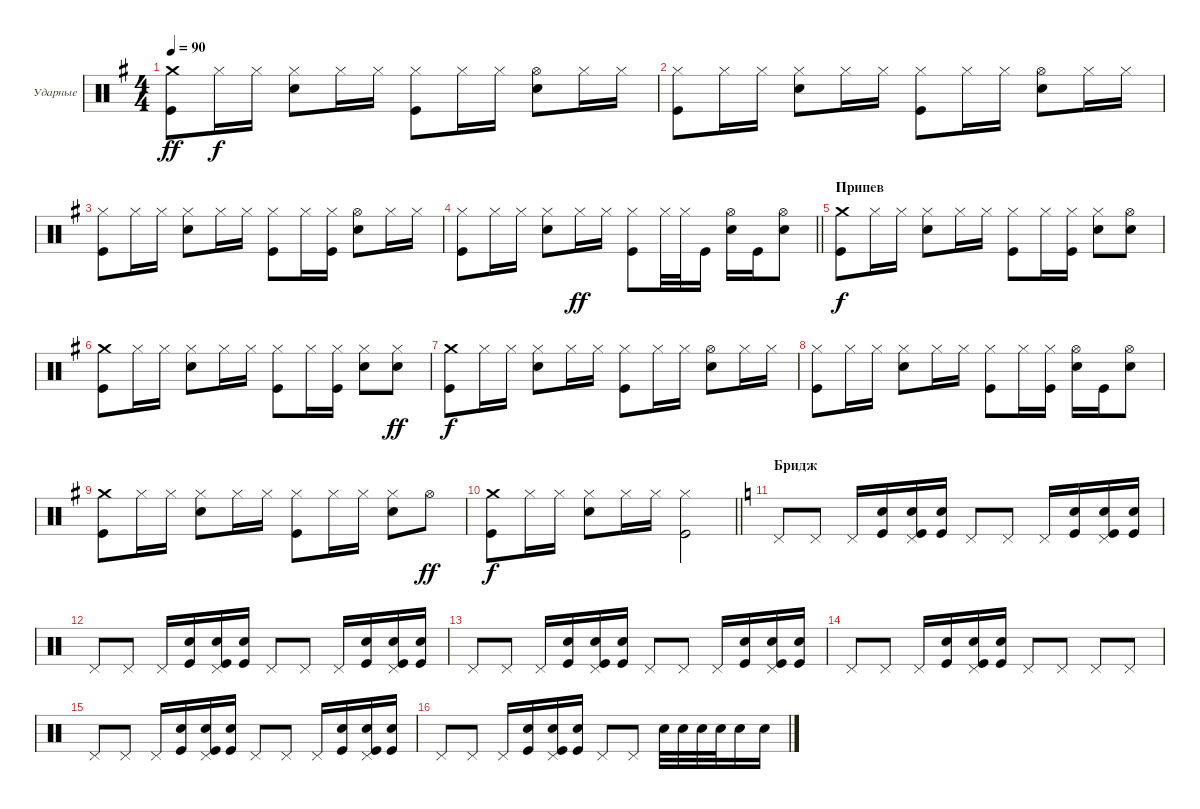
\bracketExtendMode groupsimilarinstruments
\firstSystemTrackNameOrientation horizontal
\otherSystemsTrackNameOrientation horizontal
\track ("Александр Львов" "Ударные") {instrument percussion}
\staff {score}
\articulation defaults
\ts (4 4)
\tempo 90
\clef neutral
\ks eminor
("Crash medium (hit)" "Kick (hit)").8{dy ff} "Hi-Hat (closed)".16{dy f} "Hi-Hat (closed)".16 ("Hi-Hat (closed)" "Snare (hit) 2").8 "Hi-Hat (closed)".16 "Hi-Hat (closed)".16 ("Hi-Hat (closed)" "Kick (hit)").8 "Hi-Hat (closed)".16 "Hi-Hat (closed)".16 ("Snare (hit) 2" "Hi-Hat (open)").8 "Hi-Hat (closed)".16 "Hi-Hat (closed)".16 |
("Hi-Hat (closed)" "Kick (hit)").8 "Hi-Hat (closed)".16 "Hi-Hat (closed)".16 ("Hi-Hat (closed)" "Snare (hit) 2").8 "Hi-Hat (closed)".16 "Hi-Hat (closed)".16 ("Hi-Hat (closed)" "Kick (hit)").8 "Hi-Hat (closed)".16 "Hi-Hat (closed)".16 ("Snare (hit) 2" "Hi-Hat (open)").8 "Hi-Hat (closed)".16 "Hi-Hat (closed)".16 |
("Hi-Hat (closed)" "Kick (hit)").8 "Hi-Hat (closed)".16 "Hi-Hat (closed)".16 ("Hi-Hat (closed)" "Snare (hit) 2").8 "Hi-Hat (closed)".16 "Hi-Hat (closed)".16 ("Hi-Hat (closed)" "Kick (hit)").8 "Hi-Hat (closed)".16 ("Hi-Hat (closed)" "Kick (hit)").16 ("Snare (hit) 2" "Hi-Hat (open)").8 "Hi-Hat (closed)".16 "Hi-Hat (closed)".16 |
\barLineRight lightlight
("Hi-Hat (closed)" "Kick (hit)").8 "Hi-Hat (closed)".16 "Hi-Hat (closed)".16 ("Hi-Hat (closed)" "Snare (hit) 2").8 "Hi-Hat (closed)".16{dy ff} "Hi-Hat (closed)".16 ("Hi-Hat (closed)" "Kick (hit)").8 "Hi-Hat (closed)".32 "Hi-Hat (closed)".32 "Kick (hit)".16 ("Snare (hit) 2" "Hi-Hat (open)").16 "Kick (hit)".16 ("Snare (hit) 2" "Hi-Hat (open)").8 |
\section ("" "Припев")
("Crash medium (hit)" "Kick (hit)").8{dy f} "Hi-Hat (closed)".16 "Hi-Hat (closed)".16 ("Hi-Hat (closed)" "Snare (hit) 2").8 "Hi-Hat (closed)".16 "Hi-Hat (closed)".16 ("Hi-Hat (closed)" "Kick (hit)").8 "Hi-Hat (closed)".16 ("Hi-Hat (closed)" "Kick (hit)").16 ("Snare (hit) 2" "Hi-Hat (closed)").8 ("Hi-Hat (open)" "Snare (hit) 2").8 |
("Crash medium (hit)" "Kick (hit)").8 "Hi-Hat (closed)".16 "Hi-Hat (closed)".16 ("Hi-Hat (closed)" "Snare (hit) 2").8 "Hi-Hat (closed)".16 "Hi-Hat (closed)".16 ("Hi-Hat (closed)" "Kick (hit)").8 "Hi-Hat (closed)".16 ("Hi-Hat (closed)" "Kick (hit)").16 ("Snare (hit) 2" "Hi-Hat (closed)").8 ("Hi-Hat (closed)" "Snare (hit) 2").8{dy ff} |
("Crash medium (hit)" "Kick (hit)").8{dy f} "Hi-Hat (closed)".16 "Hi-Hat (closed)".16 ("Hi-Hat (closed)" "Snare (hit) 2").8 "Hi-Hat (closed)".16 "Hi-Hat (closed)".16 ("Hi-Hat (closed)" "Kick (hit)").8 "Hi-Hat (closed)".16 "Hi-Hat (closed)".16 ("Snare (hit) 2" "Hi-Hat (open)").8 "Hi-Hat (closed)".16 "Hi-Hat (closed)".16 |
("Hi-Hat (closed)" "Kick (hit)").8 "Hi-Hat (closed)".16 "Hi-Hat (closed)".16 ("Hi-Hat (closed)" "Snare (hit) 2").8 "Hi-Hat (closed)".16 "Hi-Hat (closed)".16 ("Hi-Hat (closed)" "Kick (hit)").8 "Hi-Hat (closed)".16 ("Hi-Hat (closed)" "Kick (hit)").16 ("Snare (hit) 2" "Hi-Hat (open)").16 "Kick (hit)".16 ("Snare (hit) 2" "Hi-Hat (open)").8 |
("Crash medium (hit)" "Kick (hit)").8 "Hi-Hat (closed)".16 "Hi-Hat (closed)".16 ("Hi-Hat (closed)" "Snare (hit) 2").8 "Hi-Hat (closed)".16 "Hi-Hat (closed)".16 ("Hi-Hat (closed)" "Kick (hit)").8 "Hi-Hat (closed)".16 "Hi-Hat (closed)".16 ("Snare (hit) 2" "Hi-Hat (closed)").8 "Hi-Hat (open)".8{dy ff} |
\barLineRight lightlight
("Crash medium (hit)" "Kick (hit)").8{dy f} "Hi-Hat (closed)".16 "Hi-Hat (closed)".16 ("Hi-Hat (closed)" "Snare (hit) 2").8 "Hi-Hat (closed)".16 "Hi-Hat (closed)".16 ("Hi-Hat (closed)" "Kick (hit)").2 |
\section ("" "Бридж")
\ks c "Pedal Hi-Hat (hit)".8 "Pedal Hi-Hat (hit)".8 "Pedal Hi-Hat (hit)".16
("Kick (hit)" "Snare (hit) 2").16 ("Kick (hit)" "Snare (hit) 2" "Pedal Hi-Hat (hit)").16 ("Kick (hit)" "Snare (hit) 2").16 "Pedal Hi-Hat (hit)".8 "Pedal Hi-Hat (hit)".8 "Pedal Hi-Hat (hit)".16 ("Snare (hit) 2" "Kick (hit)").16 ("Snare (hit) 2" "Kick (hit)" "Pedal Hi-Hat (hit)").16 ("Snare (hit) 2" "Kick (hit)").16 |
"Pedal Hi-Hat (hit)".8 "Pedal Hi-Hat (hit)".8 "Pedal Hi-Hat (hit)".16 ("Kick (hit)" "Snare (hit) 2").16 ("Kick (hit)" "Snare (hit) 2" "Pedal Hi-Hat (hit)").16 ("Kick (hit)" "Snare (hit) 2").16 "Pedal Hi-Hat (hit)".8 "Pedal Hi-Hat (hit)".8 "Pedal Hi-Hat (hit)".16 ("Snare (hit) 2" "Kick (hit)").16 ("Snare (hit) 2" "Kick (hit)" "Pedal Hi-Hat (hit)").16 ("Snare (hit) 2" "Kick (hit)").16 |
"Pedal Hi-Hat (hit)".8 "Pedal Hi-Hat (hit)".8 "Pedal Hi-Hat (hit)".16 ("Kick (hit)" "Snare (hit) 2").16 ("Kick (hit)" "Snare (hit) 2" "Pedal Hi-Hat (hit)").16 ("Kick (hit)" "Snare (hit) 2").16 "Pedal Hi-Hat (hit)".8 "Pedal Hi-Hat (hit)".8 "Pedal Hi-Hat (hit)".16 ("Snare (hit) 2" "Kick (hit)").16 ("Snare (hit) 2" "Kick (hit)" "Pedal Hi-Hat (hit)").16 ("Snare (hit) 2" "Kick (hit)").16 |
"Pedal Hi-Hat (hit)".8 "Pedal Hi-Hat (hit)".8 "Pedal Hi-Hat (hit)".16 ("Kick (hit)" "Snare (hit) 2").16 ("Kick (hit)" "Snare (hit) 2" "Pedal Hi-Hat (hit)").16 ("Kick (hit)" "Snare (hit) 2").16 "Pedal Hi-Hat (hit)".8 "Pedal Hi-Hat (hit)".8 "Pedal Hi-Hat (hit)".8 "Pedal Hi-Hat (hit)".8 |
"Pedal Hi-Hat (hit)".8 "Pedal Hi-Hat (hit)".8 "Pedal Hi-Hat (hit)".16 ("Kick (hit)" "Snare (hit) 2").16 ("Kick (hit)" "Snare (hit) 2" "Pedal Hi-Hat (hit)").16 ("Kick (hit)" "Snare (hit) 2").16 "Pedal Hi-Hat (hit)".8 "Pedal Hi-Hat (hit)".8 "Pedal Hi-Hat (hit)".16 ("Snare (hit) 2" "Kick (hit)").16 ("Snare (hit) 2" "Kick (hit)" "Pedal Hi-Hat (hit)").16 ("Snare (hit) 2" "Kick (hit)").16 |
"Pedal Hi-Hat (hit)".8 "Pedal Hi-Hat (hit)".8 "Pedal Hi-Hat (hit)".16 ("Kick (hit)" "Snare (hit) 2").16 ("Kick (hit)" "Snare (hit) 2" "Pedal Hi-Hat (hit)").16 ("Kick (hit)" "Snare (hit) 2").16 "Pedal Hi-Hat (hit)".8 "Pedal Hi-Hat (hit)".8 "Snare (hit) 2".32 "Snare (hit) 2".32 "Snare (hit) 2".32 "Snare (hit) 2".32 "Snare (hit) 2".16 "Snare (hit) 2".16
